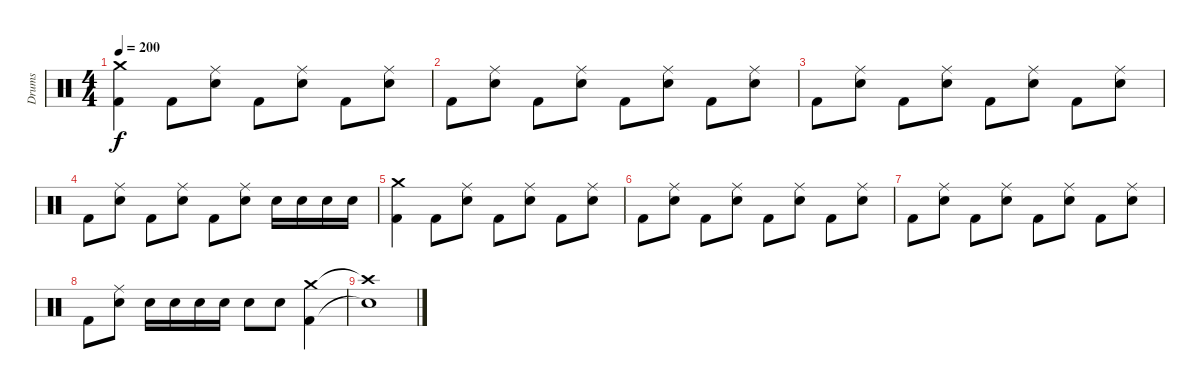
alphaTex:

\track ("Drums" "Drums") {instrument percussion}
\staff {score}
\articulation defaults
\ts (4 4)
\tempo 200
\clef neutral
\ks c
("Crash medium (hit)" "Kick (hit) 2").4{dy f} "Kick (hit) 2".8 ("Ride (middle)" "Electric Snare (hit)").8 "Kick (hit) 2".8 ("Ride (middle)" "Electric Snare (hit)").8 "Kick (hit) 2".8 ("Ride (middle)" "Electric Snare (hit)").8 |
"Kick (hit) 2".8 ("Ride (middle)" "Electric Snare (hit)").8 "Kick (hit) 2".8 ("Ride (middle)" "Electric Snare (hit)").8 "Kick (hit) 2".8 ("Ride (middle)" "Electric Snare (hit)").8 "Kick (hit) 2".8 ("Ride (middle)" "Electric Snare (hit)").8 |
"Kick (hit) 2".8 ("Ride (middle)" "Electric Snare (hit)").8 "Kick (hit) 2".8 ("Ride (middle)" "Electric Snare (hit)").8 "Kick (hit) 2".8 ("Ride (middle)" "Electric Snare (hit)").8 "Kick (hit) 2".8 ("Ride (middle)" "Electric Snare (hit)").8 |
"Kick (hit) 2".8 ("Ride (middle)" "Electric Snare (hit)").8 "Kick (hit) 2".8 ("Ride (middle)" "Electric Snare (hit)").8 "Kick (hit) 2".8 ("Ride (middle)" "Electric Snare (hit)").8 "Electric Snare (hit)".16 "Electric Snare (hit)".16 "Electric Snare (hit)".16 "Electric Snare (hit)".16 |
("Crash medium (hit)" "Kick (hit) 2").4 "Kick (hit) 2".8 ("Ride (middle)" "Electric Snare (hit)").8 "Kick (hit) 2".8 ("Ride (middle)" "Electric Snare (hit)").8 "Kick (hit) 2".8 ("Ride (middle)" "Electric Snare (hit)").8 |
"Kick (hit) 2".8 ("Ride (middle)" "Electric Snare (hit)").8 "Kick (hit) 2".8 ("Ride (middle)" "Electric Snare (hit)").8 "Kick (hit) 2".8 ("Ride (middle)" "Electric Snare (hit)").8 "Kick (hit) 2".8 ("Ride (middle)" "Electric Snare (hit)").8 |
"Kick (hit) 2".8 ("Ride (middle)" "Electric Snare (hit)").8 "Kick (hit) 2".8 ("Ride (middle)" "Electric Snare (hit)").8 "Kick (hit) 2".8 ("Ride (middle)" "Electric Snare (hit)").8 "Kick (hit) 2".8 ("Ride (middle)" "Electric Snare (hit)").8 |
"Kick (hit) 2".8 ("Ride (middle)" "Electric Snare (hit)").8 "Electric Snare (hit)".16 "Electric Snare (hit)".16 "Electric Snare (hit)".16 "Electric Snare (hit)".16 "Electric Snare (hit)".8 "Electric Snare (hit)".8 ("Crash medium (hit)" "Kick (hit) 2").4 |
("Crash high (hit)"{t} "Snare (hit)"{t}).1
